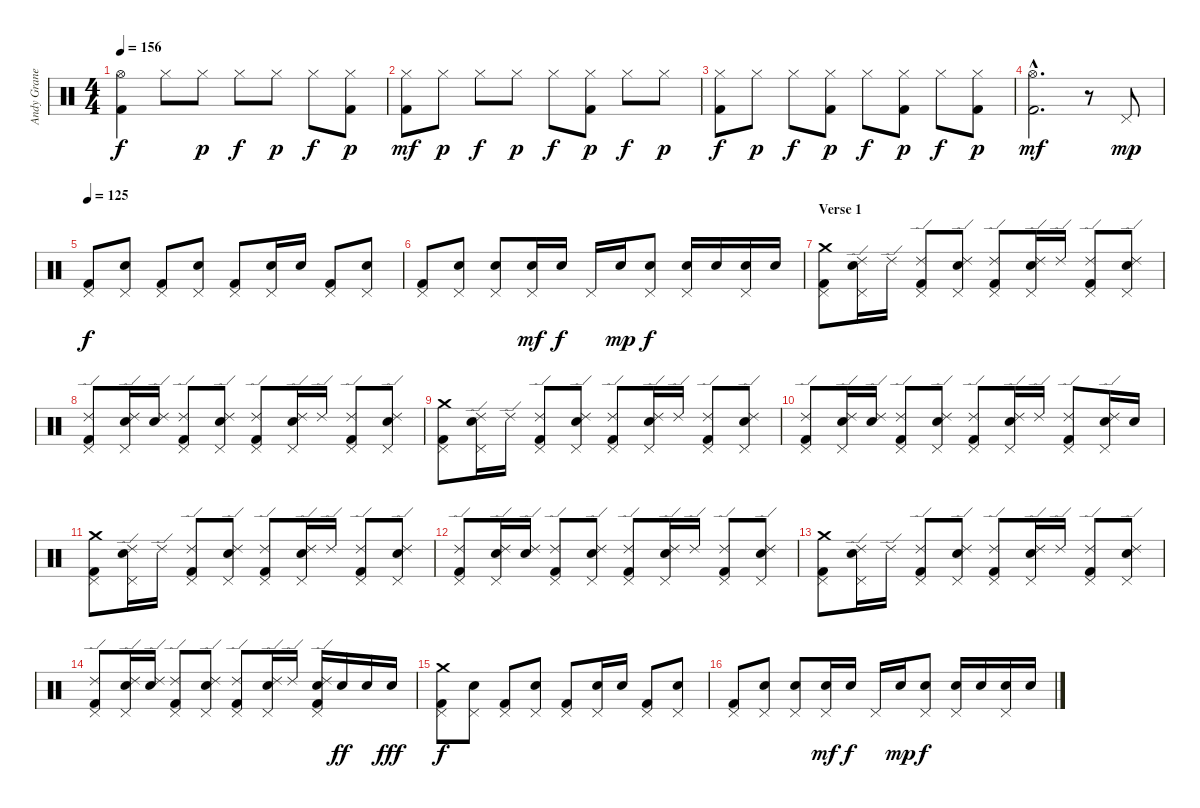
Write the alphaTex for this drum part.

\track ("Andy Granelli" "Andy Grane") {instrument percussion}
\staff {score}
\articulation defaults
\ts (4 4)
\tempo 156
\clef neutral
\ks c
("Hi-Hat (open)" "Kick (hit) 2").4{dy f} "Hi-Hat (closed)".8 "Hi-Hat (closed)".8{dy p} "Hi-Hat (closed)".8{dy f} "Hi-Hat (closed)".8{dy p} "Hi-Hat (closed)".8{dy f} ("Hi-Hat (closed)" "Kick (hit) 2").8{dy p} |
("Hi-Hat (closed)" "Kick (hit) 2").8{dy mf} "Hi-Hat (closed)".8{dy p} "Hi-Hat (closed)".8{dy f} "Hi-Hat (closed)".8{dy p} "Hi-Hat (closed)".8{dy f} ("Hi-Hat (closed)" "Kick (hit) 2").8{dy p} "Hi-Hat (closed)".8{dy f} "Hi-Hat (closed)".8{dy p} |
("Hi-Hat (closed)" "Kick (hit) 2").8{dy f} "Hi-Hat (closed)".8{dy p} "Hi-Hat (closed)".8{dy f} ("Hi-Hat (closed)" "Kick (hit) 2").8{dy p} "Hi-Hat (closed)".8{dy f} ("Hi-Hat (closed)" "Kick (hit) 2").8{dy p} "Hi-Hat (closed)".8{dy f} ("Hi-Hat (closed)" "Kick (hit) 2").8{dy p} |
("Hi-Hat (open)"{hac} "Kick (hit) 2"{hac}).2{d dy mf} r.8 "Pedal Hi-Hat (hit)".8{dy mp} |
\tempo 125
("Pedal Hi-Hat (hit)" "Kick (hit) 2").8{dy f} ("Pedal Hi-Hat (hit)" "Electric Snare (hit)").8 ("Pedal Hi-Hat (hit)" "Kick (hit) 2").8 ("Pedal Hi-Hat (hit)" "Electric Snare (hit)").8 ("Pedal Hi-Hat (hit)" "Kick (hit) 2").8 ("Pedal Hi-Hat (hit)" "Electric Snare (hit)").16 "Electric Snare (hit)".16 ("Pedal Hi-Hat (hit)" "Kick (hit) 2").8 ("Pedal Hi-Hat (hit)" "Electric Snare (hit)").8 |
("Pedal Hi-Hat (hit)" "Kick (hit) 2").8 ("Pedal Hi-Hat (hit)" "Electric Snare (hit)").8 ("Pedal Hi-Hat (hit)" "Electric Snare (hit)").8 ("Pedal Hi-Hat (hit)" "Electric Snare (hit)").16{dy mf} "Electric Snare (hit)".16{dy f} "Pedal Hi-Hat (hit)".16 "Electric Snare (hit)".16{dy mp} ("Pedal Hi-Hat (hit)" "Electric Snare (hit)").8{dy f} ("Pedal Hi-Hat (hit)" "Electric Snare (hit)").16 "Electric Snare (hit)".16 ("Pedal Hi-Hat (hit)" "Electric Snare (hit)").16 "Electric Snare (hit)".16 |
\section ("" "Verse 1")
("Crash medium (hit)" "Pedal Hi-Hat (hit)" "Kick (hit) 2").8 ("Ride (edge) 2" "Electric Snare (hit)" "Pedal Hi-Hat (hit)").16 "Ride (edge) 2".16 ("Ride (edge) 2" "Pedal Hi-Hat (hit)" "Kick (hit) 2").8 ("Ride (edge) 2" "Electric Snare (hit)" "Pedal Hi-Hat (hit)").8 ("Ride (edge) 2" "Pedal Hi-Hat (hit)" "Kick (hit) 2").8 ("Ride (edge) 2" "Electric Snare (hit)" "Pedal Hi-Hat (hit)").16 "Ride (edge) 2".16 ("Ride (edge) 2" "Pedal Hi-Hat (hit)" "Kick (hit) 2").8 ("Ride (edge) 2" "Electric Snare (hit)" "Pedal Hi-Hat (hit)").8 |
("Ride (edge) 2" "Pedal Hi-Hat (hit)" "Kick (hit) 2").8 ("Ride (edge) 2" "Electric Snare (hit)" "Pedal Hi-Hat (hit)").16 ("Ride (edge) 2" "Electric Snare (hit)").16 ("Ride (edge) 2" "Pedal Hi-Hat (hit)" "Kick (hit) 2").8 ("Ride (edge) 2" "Electric Snare (hit)" "Pedal Hi-Hat (hit)").8 ("Ride (edge) 2" "Pedal Hi-Hat (hit)" "Kick (hit) 2").8 ("Ride (edge) 2" "Electric Snare (hit)" "Pedal Hi-Hat (hit)").16 "Ride (edge) 2".16 ("Ride (edge) 2" "Pedal Hi-Hat (hit)" "Kick (hit) 2").8 ("Ride (edge) 2" "Electric Snare (hit)" "Pedal Hi-Hat (hit)").8 |
("Crash medium (hit)" "Pedal Hi-Hat (hit)" "Kick (hit) 2").8 ("Ride (edge) 2" "Electric Snare (hit)" "Pedal Hi-Hat (hit)").16 "Ride (edge) 2".16 ("Ride (edge) 2" "Pedal Hi-Hat (hit)" "Kick (hit) 2").8 ("Ride (edge) 2" "Electric Snare (hit)" "Pedal Hi-Hat (hit)").8 ("Ride (edge) 2" "Pedal Hi-Hat (hit)" "Kick (hit) 2").8 ("Ride (edge) 2" "Electric Snare (hit)" "Pedal Hi-Hat (hit)").16 "Ride (edge) 2".16 ("Ride (edge) 2" "Pedal Hi-Hat (hit)" "Kick (hit) 2").8 ("Ride (edge) 2" "Electric Snare (hit)" "Pedal Hi-Hat (hit)").8 |
("Ride (edge) 2" "Pedal Hi-Hat (hit)" "Kick (hit) 2").8 ("Ride (edge) 2" "Electric Snare (hit)" "Pedal Hi-Hat (hit)").16 ("Ride (edge) 2" "Electric Snare (hit)").16 ("Ride (edge) 2" "Pedal Hi-Hat (hit)" "Kick (hit) 2").8 ("Ride (edge) 2" "Electric Snare (hit)" "Pedal Hi-Hat (hit)").8 ("Ride (edge) 2" "Pedal Hi-Hat (hit)" "Kick (hit) 2").8 ("Ride (edge) 2" "Electric Snare (hit)" "Pedal Hi-Hat (hit)").16 "Ride (edge) 2".16 ("Ride (edge) 2" "Pedal Hi-Hat (hit)" "Kick (hit) 2").8 ("Ride (edge) 2" "Electric Snare (hit)" "Pedal Hi-Hat (hit)").16 "Electric Snare (hit)".16 |
("Crash medium (hit)" "Pedal Hi-Hat (hit)" "Kick (hit) 2").8 ("Ride (edge) 2" "Electric Snare (hit)" "Pedal Hi-Hat (hit)").16 "Ride (edge) 2".16 ("Ride (edge) 2" "Pedal Hi-Hat (hit)" "Kick (hit) 2").8 ("Ride (edge) 2" "Electric Snare (hit)" "Pedal Hi-Hat (hit)").8 ("Ride (edge) 2" "Pedal Hi-Hat (hit)" "Kick (hit) 2").8 ("Ride (edge) 2" "Electric Snare (hit)" "Pedal Hi-Hat (hit)").16 "Ride (edge) 2".16 ("Ride (edge) 2" "Pedal Hi-Hat (hit)" "Kick (hit) 2").8 ("Ride (edge) 2" "Electric Snare (hit)" "Pedal Hi-Hat (hit)").8 |
("Ride (edge) 2" "Pedal Hi-Hat (hit)" "Kick (hit) 2").8 ("Ride (edge) 2" "Electric Snare (hit)" "Pedal Hi-Hat (hit)").16 ("Ride (edge) 2" "Electric Snare (hit)").16 ("Ride (edge) 2" "Pedal Hi-Hat (hit)" "Kick (hit) 2").8 ("Ride (edge) 2" "Electric Snare (hit)" "Pedal Hi-Hat (hit)").8 ("Ride (edge) 2" "Pedal Hi-Hat (hit)" "Kick (hit) 2").8 ("Ride (edge) 2" "Electric Snare (hit)" "Pedal Hi-Hat (hit)").16 "Ride (edge) 2".16 ("Ride (edge) 2" "Pedal Hi-Hat (hit)" "Kick (hit) 2").8 ("Ride (edge) 2" "Electric Snare (hit)" "Pedal Hi-Hat (hit)").8 |
("Crash medium (hit)" "Pedal Hi-Hat (hit)" "Kick (hit) 2").8 ("Ride (edge) 2" "Electric Snare (hit)" "Pedal Hi-Hat (hit)").16 "Ride (edge) 2".16 ("Ride (edge) 2" "Pedal Hi-Hat (hit)" "Kick (hit) 2").8 ("Ride (edge) 2" "Electric Snare (hit)" "Pedal Hi-Hat (hit)").8 ("Ride (edge) 2" "Pedal Hi-Hat (hit)" "Kick (hit) 2").8 ("Ride (edge) 2" "Electric Snare (hit)" "Pedal Hi-Hat (hit)").16 "Ride (edge) 2".16 ("Ride (edge) 2" "Pedal Hi-Hat (hit)" "Kick (hit) 2").8 ("Ride (edge) 2" "Electric Snare (hit)" "Pedal Hi-Hat (hit)").8 |
("Ride (edge) 2" "Pedal Hi-Hat (hit)" "Kick (hit) 2").8 ("Ride (edge) 2" "Electric Snare (hit)" "Pedal Hi-Hat (hit)").16 ("Ride (edge) 2" "Electric Snare (hit)").16 ("Ride (edge) 2" "Pedal Hi-Hat (hit)" "Kick (hit) 2").8 ("Ride (edge) 2" "Electric Snare (hit)" "Pedal Hi-Hat (hit)").8 ("Ride (edge) 2" "Pedal Hi-Hat (hit)" "Kick (hit) 2").8 ("Ride (edge) 2" "Electric Snare (hit)" "Pedal Hi-Hat (hit)").16 "Ride (edge) 2".16 ("Ride (edge) 2" "Electric Snare (hit)" "Pedal Hi-Hat (hit)" "Kick (hit) 2").16 "Electric Snare (hit)".16{dy ff} "Electric Snare (hit)".16 "Electric Snare (hit)".16{dy fff} |
("Crash medium (hit)" "Pedal Hi-Hat (hit)" "Kick (hit) 2").8{dy f} ("Pedal Hi-Hat (hit)" "Electric Snare (hit)").8 ("Pedal Hi-Hat (hit)" "Kick (hit) 2").8 ("Pedal Hi-Hat (hit)" "Electric Snare (hit)").8 ("Pedal Hi-Hat (hit)" "Kick (hit) 2").8 ("Pedal Hi-Hat (hit)" "Electric Snare (hit)").16 "Electric Snare (hit)".16 ("Pedal Hi-Hat (hit)" "Kick (hit) 2").8 ("Pedal Hi-Hat (hit)" "Electric Snare (hit)").8 |
("Pedal Hi-Hat (hit)" "Kick (hit) 2").8 ("Pedal Hi-Hat (hit)" "Electric Snare (hit)").8 ("Pedal Hi-Hat (hit)" "Electric Snare (hit)").8 ("Pedal Hi-Hat (hit)" "Electric Snare (hit)").16{dy mf} "Electric Snare (hit)".16{dy f} "Pedal Hi-Hat (hit)".16 "Electric Snare (hit)".16{dy mp} ("Pedal Hi-Hat (hit)" "Electric Snare (hit)").8{dy f} ("Pedal Hi-Hat (hit)" "Electric Snare (hit)").16 "Electric Snare (hit)".16 ("Pedal Hi-Hat (hit)" "Electric Snare (hit)").16 "Electric Snare (hit)".16
